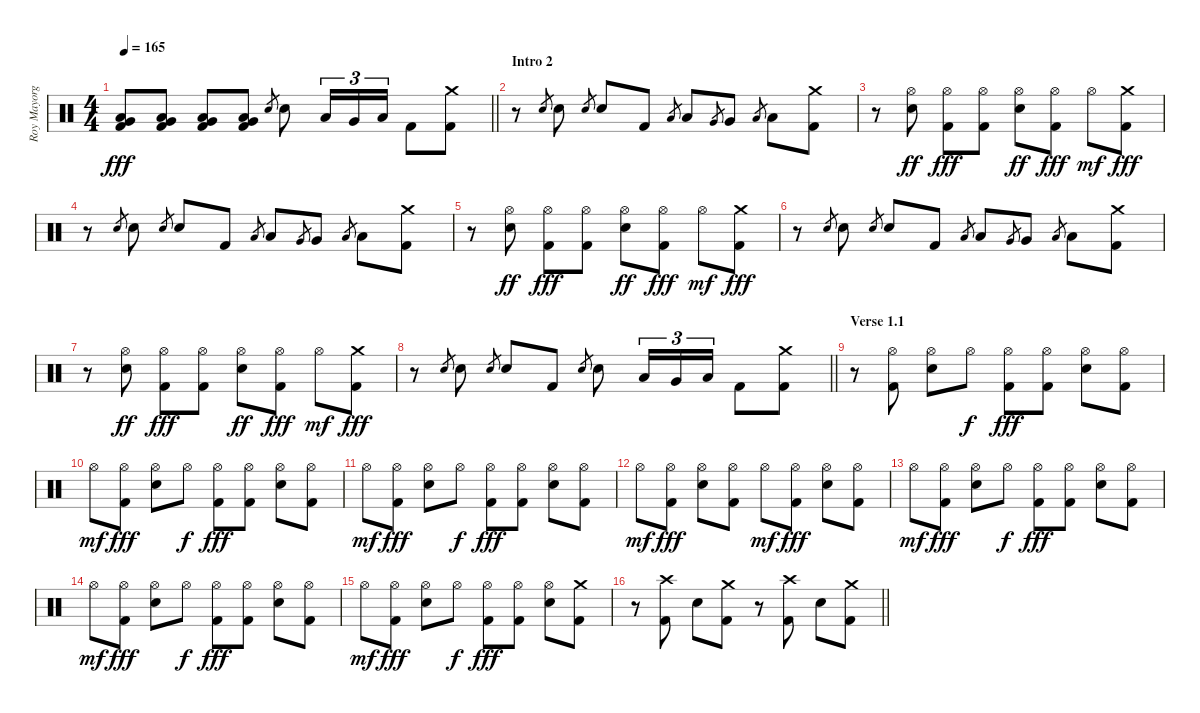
\track ("Roy Mayorga" "Roy Mayorg") {instrument percussion}
\staff {score}
\articulation defaults
\ts (4 4)
\tempo 165
\clef neutral
\barLineRight lightlight
\ks c
("Very Low Tom (hit)" "Low Floor Tom (hit)" "Kick (hit) 2").8{dy fff} ("Very Low Tom (hit)" "Low Floor Tom (hit)" "Kick (hit) 2").8 ("Very Low Tom (hit)" "Low Floor Tom (hit)" "Kick (hit) 2").8 ("Very Low Tom (hit)" "Low Floor Tom (hit)" "Kick (hit) 2").8 "Electric Snare (hit)".8{gr} "Electric Snare (hit)".8 "Low Tom (hit)".16{tu (3 2)} "Very Low Tom (hit)".16{tu (3 2)} "Low Floor Tom (hit)".16{tu (3 2)} "Kick (hit) 2".8 ("Crash medium (hit)" "Kick (hit) 2").8 |
\section ("" "Intro 2")
r.8 "Electric Snare (hit)".8{gr} "Electric Snare (hit)".8 "Electric Snare (hit)".8{gr} "Electric Snare (hit)".8 "Kick (hit) 2".8 "Low Tom (hit)".8{gr} "Low Tom (hit)".8 "Very Low Tom (hit)".8{gr} "Very Low Tom (hit)".8 "Low Floor Tom (hit)".8{gr} "Low Floor Tom (hit)".8 ("Crash medium (hit)" "Kick (hit) 2").8 |
r.8 ("Hi-Hat (open)" "Electric Snare (hit)").8{dy ff} ("Hi-Hat (open)" "Kick (hit) 2").8{dy fff} ("Hi-Hat (open)" "Kick (hit) 2").8 ("Hi-Hat (open)" "Electric Snare (hit)").8{dy ff} ("Hi-Hat (open)" "Kick (hit) 2").8{dy fff} "Hi-Hat (open)".8{dy mf} ("Crash medium (hit)" "Kick (hit) 2").8{dy fff} |
r.8 "Electric Snare (hit)".8{gr} "Electric Snare (hit)".8 "Electric Snare (hit)".8{gr} "Electric Snare (hit)".8 "Kick (hit) 2".8 "Low Tom (hit)".8{gr} "Low Tom (hit)".8 "Very Low Tom (hit)".8{gr} "Very Low Tom (hit)".8 "Low Floor Tom (hit)".8{gr} "Low Floor Tom (hit)".8 ("Crash medium (hit)" "Kick (hit) 2").8 |
r.8 ("Hi-Hat (open)" "Electric Snare (hit)").8{dy ff} ("Hi-Hat (open)" "Kick (hit) 2").8{dy fff} ("Hi-Hat (open)" "Kick (hit) 2").8 ("Hi-Hat (open)" "Electric Snare (hit)").8{dy ff} ("Hi-Hat (open)" "Kick (hit) 2").8{dy fff} "Hi-Hat (open)".8{dy mf} ("Crash medium (hit)" "Kick (hit) 2").8{dy fff} |
r.8 "Electric Snare (hit)".8{gr} "Electric Snare (hit)".8 "Electric Snare (hit)".8{gr} "Electric Snare (hit)".8 "Kick (hit) 2".8 "Low Tom (hit)".8{gr} "Low Tom (hit)".8 "Very Low Tom (hit)".8{gr} "Very Low Tom (hit)".8 "Low Floor Tom (hit)".8{gr} "Low Floor Tom (hit)".8 ("Crash medium (hit)" "Kick (hit) 2").8 |
r.8 ("Hi-Hat (open)" "Electric Snare (hit)").8{dy ff} ("Hi-Hat (open)" "Kick (hit) 2").8{dy fff} ("Hi-Hat (open)" "Kick (hit) 2").8 ("Hi-Hat (open)" "Electric Snare (hit)").8{dy ff} ("Hi-Hat (open)" "Kick (hit) 2").8{dy fff} "Hi-Hat (open)".8{dy mf} ("Crash medium (hit)" "Kick (hit) 2").8{dy fff} |
\barLineRight lightlight
r.8 "Electric Snare (hit)".8{gr} "Electric Snare (hit)".8 "Electric Snare (hit)".8{gr} "Electric Snare (hit)".8 "Kick (hit) 2".8 "Electric Snare (hit)".8{gr} "Electric Snare (hit)".8 "Low Tom (hit)".16{tu (3 2)} "Very Low Tom (hit)".16{tu (3 2)} "Low Floor Tom (hit)".16{tu (3 2)} "Kick (hit) 2".8 ("Crash medium (hit)" "Kick (hit) 2").8 |
\section ("" "Verse 1.1")
r.8 ("Hi-Hat (open)" "Kick (hit) 2").8 ("Hi-Hat (open)" "Electric Snare (hit)").8 "Hi-Hat (open)".8{dy f} ("Hi-Hat (open)" "Kick (hit) 2").8{dy fff} ("Hi-Hat (open)" "Kick (hit) 2").8 ("Hi-Hat (open)" "Electric Snare (hit)").8 ("Hi-Hat (open)" "Kick (hit) 2").8 |
"Hi-Hat (open)".8{dy mf} ("Hi-Hat (open)" "Kick (hit) 2").8{dy fff} ("Hi-Hat (open)" "Electric Snare (hit)").8 "Hi-Hat (open)".8{dy f} ("Hi-Hat (open)" "Kick (hit) 2").8{dy fff} ("Hi-Hat (open)" "Kick (hit) 2").8 ("Hi-Hat (open)" "Electric Snare (hit)").8 ("Hi-Hat (open)" "Kick (hit) 2").8 |
"Hi-Hat (open)".8{dy mf} ("Hi-Hat (open)" "Kick (hit) 2").8{dy fff} ("Hi-Hat (open)" "Electric Snare (hit)").8 "Hi-Hat (open)".8{dy f} ("Hi-Hat (open)" "Kick (hit) 2").8{dy fff} ("Hi-Hat (open)" "Kick (hit) 2").8 ("Hi-Hat (open)" "Electric Snare (hit)").8 ("Hi-Hat (open)" "Kick (hit) 2").8 |
"Hi-Hat (open)".8{dy mf} ("Hi-Hat (open)" "Kick (hit) 2").8{dy fff} ("Hi-Hat (open)" "Electric Snare (hit)").8 ("Hi-Hat (open)" "Kick (hit) 2").8 "Hi-Hat (open)".8{dy mf} ("Hi-Hat (open)" "Kick (hit) 2").8{dy fff} ("Hi-Hat (open)" "Electric Snare (hit)").8 ("Hi-Hat (open)" "Kick (hit) 2").8 |
"Hi-Hat (open)".8{dy mf} ("Hi-Hat (open)" "Kick (hit) 2").8{dy fff} ("Hi-Hat (open)" "Electric Snare (hit)").8 "Hi-Hat (open)".8{dy f} ("Hi-Hat (open)" "Kick (hit) 2").8{dy fff} ("Hi-Hat (open)" "Kick (hit) 2").8 ("Hi-Hat (open)" "Electric Snare (hit)").8 ("Hi-Hat (open)" "Kick (hit) 2").8 |
"Hi-Hat (open)".8{dy mf} ("Hi-Hat (open)" "Kick (hit) 2").8{dy fff} ("Hi-Hat (open)" "Electric Snare (hit)").8 "Hi-Hat (open)".8{dy f} ("Hi-Hat (open)" "Kick (hit) 2").8{dy fff} ("Hi-Hat (open)" "Kick (hit) 2").8 ("Hi-Hat (open)" "Electric Snare (hit)").8 ("Hi-Hat (open)" "Kick (hit) 2").8 |
"Hi-Hat (open)".8{dy mf} ("Hi-Hat (open)" "Kick (hit) 2").8{dy fff} ("Hi-Hat (open)" "Electric Snare (hit)").8 "Hi-Hat (open)".8{dy f} ("Hi-Hat (open)" "Kick (hit) 2").8{dy fff} ("Hi-Hat (open)" "Kick (hit) 2").8 ("Hi-Hat (open)" "Electric Snare (hit)").8 ("Crash medium (hit)" "Kick (hit) 2").8 |
\barLineRight lightlight
r.8 ("Crash high (hit)" "Kick (hit) 2").8 "Electric Snare (hit)".8 ("Crash medium (hit)" "Kick (hit) 2").8 r.8 ("Crash high (hit)" "Kick (hit) 2").8 "Electric Snare (hit)".8 ("Crash medium (hit)" "Kick (hit) 2").8
